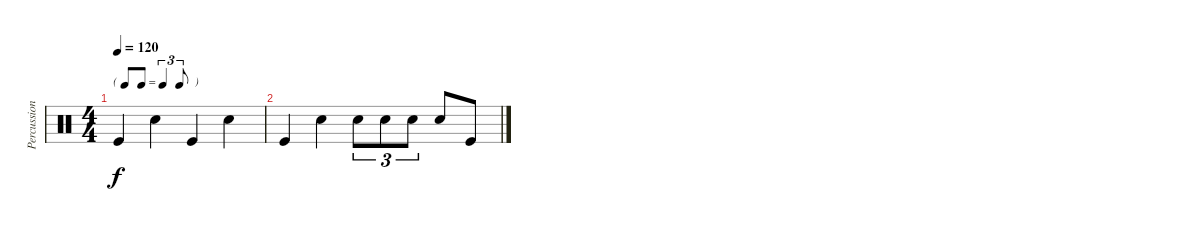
\track ("Percussion" "Percussion") {instrument percussion}
\staff {score}
\articulation defaults
\ts (4 4)
\tf triplet8th
\tempo 120
\clef neutral
\ks c "Kick (hit)".4{dy f} "Electric Snare (hit)".4 "Kick (hit)".4 "Electric Snare (hit)".4
|
"Kick (hit)".4 "Electric Snare (hit)".4 "Snare (hit) 2".8{tu (3 2)} "Snare (hit) 2".8{tu (3 2)} "Snare (hit) 2".8{tu (3 2)} "Electric Snare (hit)".8 "Kick (hit)".8
